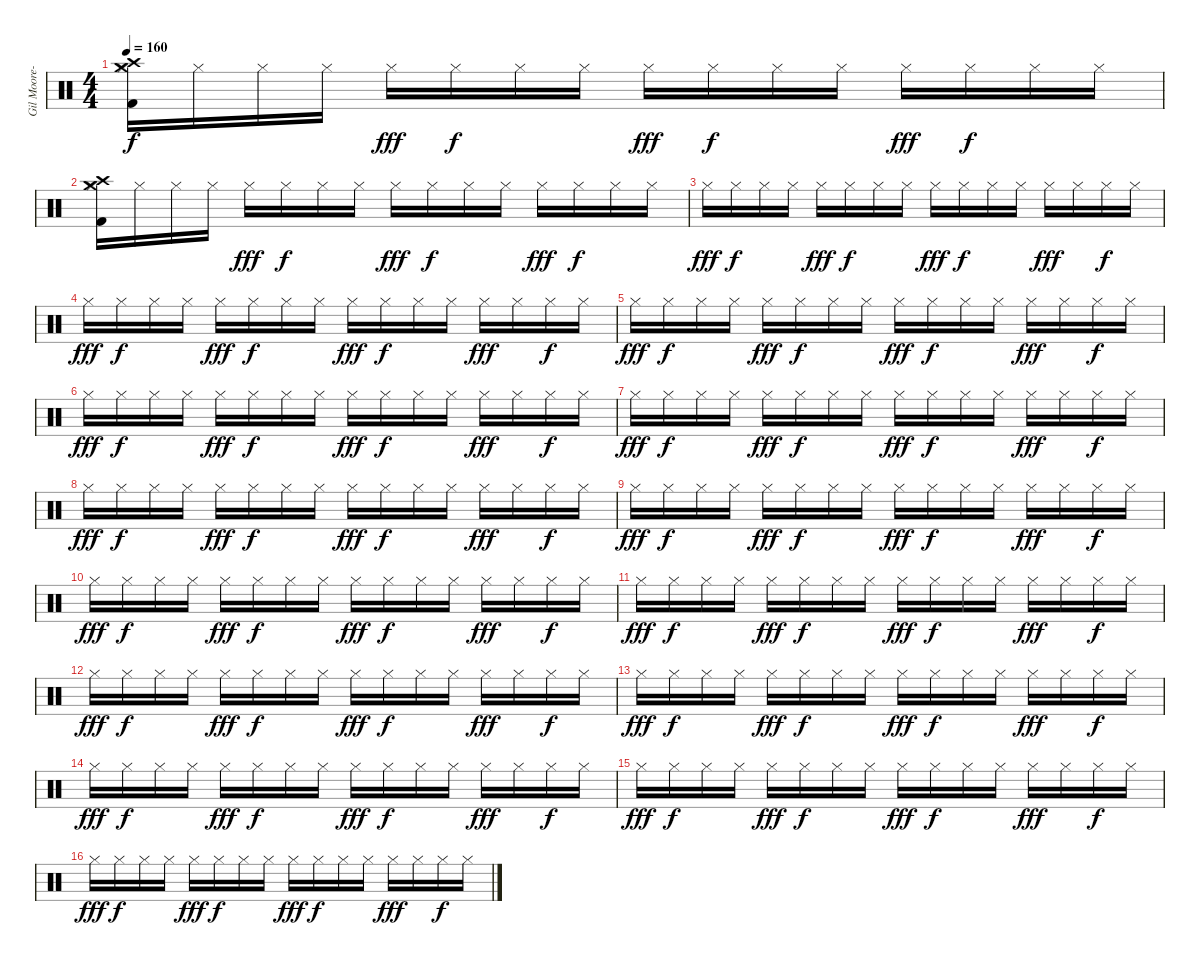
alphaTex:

\track ("Gil Moore-Drums n Vocals" "Gil Moore-") {instrument percussion}
\staff {score}
\articulation defaults
\ts (4 4)
\tempo 160
\clef neutral
\ks c
("Hi-Hat (closed)" "Crash high (hit)" "Kick (hit) 2" "Crash medium (hit)").16{dy f} "Hi-Hat (closed)".16 "Hi-Hat (closed)".16 "Hi-Hat (closed)".16 "Hi-Hat (closed)".16{dy fff} "Hi-Hat (closed)".16{dy f} "Hi-Hat (closed)".16 "Hi-Hat (closed)".16 "Hi-Hat (closed)".16{dy fff} "Hi-Hat (closed)".16{dy f} "Hi-Hat (closed)".16 "Hi-Hat (closed)".16 "Hi-Hat (closed)".16{dy fff} "Hi-Hat (closed)".16{dy f} "Hi-Hat (closed)".16 "Hi-Hat (closed)".16 |
("Hi-Hat (closed)" "Crash high (hit)" "Kick (hit) 2" "Crash medium (hit)").16 "Hi-Hat (closed)".16 "Hi-Hat (closed)".16 "Hi-Hat (closed)".16 "Hi-Hat (closed)".16{dy fff} "Hi-Hat (closed)".16{dy f} "Hi-Hat (closed)".16 "Hi-Hat (closed)".16 "Hi-Hat (closed)".16{dy fff} "Hi-Hat (closed)".16{dy f} "Hi-Hat (closed)".16 "Hi-Hat (closed)".16 "Hi-Hat (closed)".16{dy fff} "Hi-Hat (closed)".16{dy f} "Hi-Hat (closed)".16 "Hi-Hat (closed)".16 |
"Hi-Hat (closed)".16{dy fff} "Hi-Hat (closed)".16{dy f} "Hi-Hat (closed)".16 "Hi-Hat (closed)".16 "Hi-Hat (closed)".16{dy fff} "Hi-Hat (closed)".16{dy f} "Hi-Hat (closed)".16 "Hi-Hat (closed)".16 "Hi-Hat (closed)".16{dy fff} "Hi-Hat (closed)".16{dy f} "Hi-Hat (closed)".16 "Hi-Hat (closed)".16 "Hi-Hat (closed)".16{dy fff} "Hi-Hat (closed)".16 "Hi-Hat (closed)".16{dy f} "Hi-Hat (closed)".16 |
"Hi-Hat (closed)".16{dy fff} "Hi-Hat (closed)".16{dy f} "Hi-Hat (closed)".16 "Hi-Hat (closed)".16 "Hi-Hat (closed)".16{dy fff} "Hi-Hat (closed)".16{dy f} "Hi-Hat (closed)".16 "Hi-Hat (closed)".16 "Hi-Hat (closed)".16{dy fff} "Hi-Hat (closed)".16{dy f} "Hi-Hat (closed)".16 "Hi-Hat (closed)".16 "Hi-Hat (closed)".16{dy fff} "Hi-Hat (closed)".16 "Hi-Hat (closed)".16{dy f} "Hi-Hat (closed)".16 |
"Hi-Hat (closed)".16{dy fff} "Hi-Hat (closed)".16{dy f} "Hi-Hat (closed)".16 "Hi-Hat (closed)".16 "Hi-Hat (closed)".16{dy fff} "Hi-Hat (closed)".16{dy f} "Hi-Hat (closed)".16 "Hi-Hat (closed)".16 "Hi-Hat (closed)".16{dy fff} "Hi-Hat (closed)".16{dy f} "Hi-Hat (closed)".16 "Hi-Hat (closed)".16 "Hi-Hat (closed)".16{dy fff} "Hi-Hat (closed)".16 "Hi-Hat (closed)".16{dy f} "Hi-Hat (closed)".16 |
"Hi-Hat (closed)".16{dy fff} "Hi-Hat (closed)".16{dy f} "Hi-Hat (closed)".16 "Hi-Hat (closed)".16 "Hi-Hat (closed)".16{dy fff} "Hi-Hat (closed)".16{dy f} "Hi-Hat (closed)".16 "Hi-Hat (closed)".16 "Hi-Hat (closed)".16{dy fff} "Hi-Hat (closed)".16{dy f} "Hi-Hat (closed)".16 "Hi-Hat (closed)".16 "Hi-Hat (closed)".16{dy fff} "Hi-Hat (closed)".16 "Hi-Hat (closed)".16{dy f} "Hi-Hat (closed)".16 |
"Hi-Hat (closed)".16{dy fff} "Hi-Hat (closed)".16{dy f} "Hi-Hat (closed)".16 "Hi-Hat (closed)".16 "Hi-Hat (closed)".16{dy fff} "Hi-Hat (closed)".16{dy f} "Hi-Hat (closed)".16 "Hi-Hat (closed)".16 "Hi-Hat (closed)".16{dy fff} "Hi-Hat (closed)".16{dy f} "Hi-Hat (closed)".16 "Hi-Hat (closed)".16 "Hi-Hat (closed)".16{dy fff} "Hi-Hat (closed)".16 "Hi-Hat (closed)".16{dy f} "Hi-Hat (closed)".16 |
"Hi-Hat (closed)".16{dy fff} "Hi-Hat (closed)".16{dy f} "Hi-Hat (closed)".16 "Hi-Hat (closed)".16 "Hi-Hat (closed)".16{dy fff} "Hi-Hat (closed)".16{dy f} "Hi-Hat (closed)".16 "Hi-Hat (closed)".16 "Hi-Hat (closed)".16{dy fff} "Hi-Hat (closed)".16{dy f} "Hi-Hat (closed)".16 "Hi-Hat (closed)".16 "Hi-Hat (closed)".16{dy fff} "Hi-Hat (closed)".16 "Hi-Hat (closed)".16{dy f} "Hi-Hat (closed)".16 |
"Hi-Hat (closed)".16{dy fff} "Hi-Hat (closed)".16{dy f} "Hi-Hat (closed)".16 "Hi-Hat (closed)".16 "Hi-Hat (closed)".16{dy fff} "Hi-Hat (closed)".16{dy f} "Hi-Hat (closed)".16 "Hi-Hat (closed)".16 "Hi-Hat (closed)".16{dy fff} "Hi-Hat (closed)".16{dy f} "Hi-Hat (closed)".16 "Hi-Hat (closed)".16 "Hi-Hat (closed)".16{dy fff} "Hi-Hat (closed)".16 "Hi-Hat (closed)".16{dy f} "Hi-Hat (closed)".16 |
"Hi-Hat (closed)".16{dy fff} "Hi-Hat (closed)".16{dy f} "Hi-Hat (closed)".16 "Hi-Hat (closed)".16 "Hi-Hat (closed)".16{dy fff} "Hi-Hat (closed)".16{dy f} "Hi-Hat (closed)".16 "Hi-Hat (closed)".16 "Hi-Hat (closed)".16{dy fff} "Hi-Hat (closed)".16{dy f} "Hi-Hat (closed)".16 "Hi-Hat (closed)".16 "Hi-Hat (closed)".16{dy fff} "Hi-Hat (closed)".16 "Hi-Hat (closed)".16{dy f} "Hi-Hat (closed)".16 |
"Hi-Hat (closed)".16{dy fff} "Hi-Hat (closed)".16{dy f} "Hi-Hat (closed)".16 "Hi-Hat (closed)".16 "Hi-Hat (closed)".16{dy fff} "Hi-Hat (closed)".16{dy f} "Hi-Hat (closed)".16 "Hi-Hat (closed)".16 "Hi-Hat (closed)".16{dy fff} "Hi-Hat (closed)".16{dy f} "Hi-Hat (closed)".16 "Hi-Hat (closed)".16 "Hi-Hat (closed)".16{dy fff} "Hi-Hat (closed)".16 "Hi-Hat (closed)".16{dy f} "Hi-Hat (closed)".16 |
"Hi-Hat (closed)".16{dy fff} "Hi-Hat (closed)".16{dy f} "Hi-Hat (closed)".16 "Hi-Hat (closed)".16 "Hi-Hat (closed)".16{dy fff} "Hi-Hat (closed)".16{dy f} "Hi-Hat (closed)".16 "Hi-Hat (closed)".16 "Hi-Hat (closed)".16{dy fff} "Hi-Hat (closed)".16{dy f} "Hi-Hat (closed)".16 "Hi-Hat (closed)".16 "Hi-Hat (closed)".16{dy fff} "Hi-Hat (closed)".16 "Hi-Hat (closed)".16{dy f} "Hi-Hat (closed)".16 |
"Hi-Hat (closed)".16{dy fff} "Hi-Hat (closed)".16{dy f} "Hi-Hat (closed)".16 "Hi-Hat (closed)".16 "Hi-Hat (closed)".16{dy fff} "Hi-Hat (closed)".16{dy f} "Hi-Hat (closed)".16 "Hi-Hat (closed)".16 "Hi-Hat (closed)".16{dy fff} "Hi-Hat (closed)".16{dy f} "Hi-Hat (closed)".16 "Hi-Hat (closed)".16 "Hi-Hat (closed)".16{dy fff} "Hi-Hat (closed)".16 "Hi-Hat (closed)".16{dy f} "Hi-Hat (closed)".16 |
"Hi-Hat (closed)".16{dy fff} "Hi-Hat (closed)".16{dy f} "Hi-Hat (closed)".16 "Hi-Hat (closed)".16 "Hi-Hat (closed)".16{dy fff} "Hi-Hat (closed)".16{dy f} "Hi-Hat (closed)".16 "Hi-Hat (closed)".16 "Hi-Hat (closed)".16{dy fff} "Hi-Hat (closed)".16{dy f} "Hi-Hat (closed)".16 "Hi-Hat (closed)".16 "Hi-Hat (closed)".16{dy fff} "Hi-Hat (closed)".16 "Hi-Hat (closed)".16{dy f} "Hi-Hat (closed)".16 |
"Hi-Hat (closed)".16{dy fff} "Hi-Hat (closed)".16{dy f} "Hi-Hat (closed)".16 "Hi-Hat (closed)".16 "Hi-Hat (closed)".16{dy fff} "Hi-Hat (closed)".16{dy f} "Hi-Hat (closed)".16 "Hi-Hat (closed)".16 "Hi-Hat (closed)".16{dy fff} "Hi-Hat (closed)".16{dy f} "Hi-Hat (closed)".16 "Hi-Hat (closed)".16 "Hi-Hat (closed)".16{dy fff} "Hi-Hat (closed)".16 "Hi-Hat (closed)".16{dy f} "Hi-Hat (closed)".16 |
"Hi-Hat (closed)".16{dy fff} "Hi-Hat (closed)".16{dy f} "Hi-Hat (closed)".16 "Hi-Hat (closed)".16 "Hi-Hat (closed)".16{dy fff} "Hi-Hat (closed)".16{dy f} "Hi-Hat (closed)".16 "Hi-Hat (closed)".16 "Hi-Hat (closed)".16{dy fff} "Hi-Hat (closed)".16{dy f} "Hi-Hat (closed)".16 "Hi-Hat (closed)".16 "Hi-Hat (closed)".16{dy fff} "Hi-Hat (closed)".16 "Hi-Hat (closed)".16{dy f} "Hi-Hat (closed)".16
